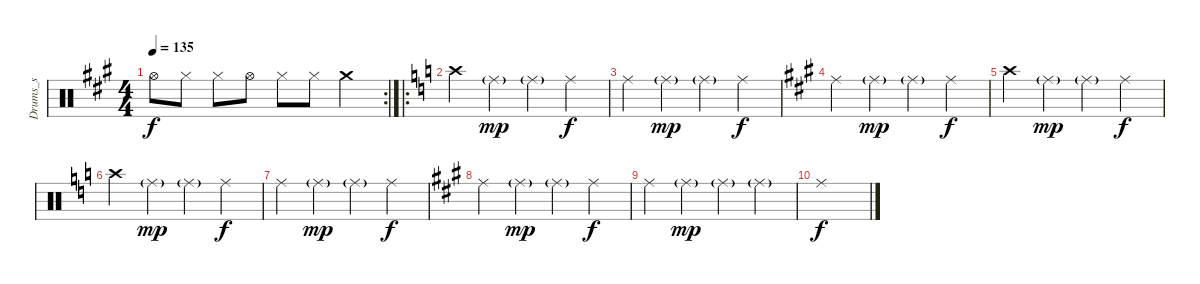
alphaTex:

\track ("Drums_s" "Drums_s") {instrument percussion}
\staff {score}
\articulation defaults
\rc 2
\ts (4 4)
\tempo 135
\clef neutral
\ks a "Hi-Hat (open)".8{dy f} "Hi-Hat (closed)".8 "Hi-Hat (closed)".8 "Hi-Hat (open)".8 "Hi-Hat (closed)".8 "Hi-Hat (closed)".8 "Crash medium (hit)".4
|
\ro
\ks c "Crash high (hit)".4 "Ride (middle)"{g}.4{dy mp} "Ride (middle)"{g}.4 "Ride (middle)".4{dy f}
|
"Ride (middle)".4 "Ride (middle)"{g}.4{dy mp} "Ride (middle)"{g}.4 "Ride (middle)".4{dy f} |
\ks a "Ride (middle)".4 "Ride (middle)"{g}.4{dy mp} "Ride (middle)"{g}.4 "Ride (middle)".4{dy f}
|
"Crash high (hit)".4 "Ride (middle)"{g}.4{dy mp} "Ride (middle)"{g}.4 "Ride (middle)".4{dy f} |
\ks c "Crash high (hit)".4 "Ride (middle)"{g}.4{dy mp} "Ride (middle)"{g}.4 "Ride (middle)".4{dy f}
|
"Ride (middle)".4 "Ride (middle)"{g}.4{dy mp} "Ride (middle)"{g}.4 "Ride (middle)".4{dy f} |
\ks a "Ride (middle)".4 "Ride (middle)"{g}.4{dy mp} "Ride (middle)"{g}.4 "Ride (middle)".4{dy f}
|
"Ride (middle)".4 "Ride (middle)"{g}.4{dy mp} "Ride (middle)"{g}.4 "Ride (middle)"{g}.4 |
"Ride (middle)".1{dy f}
